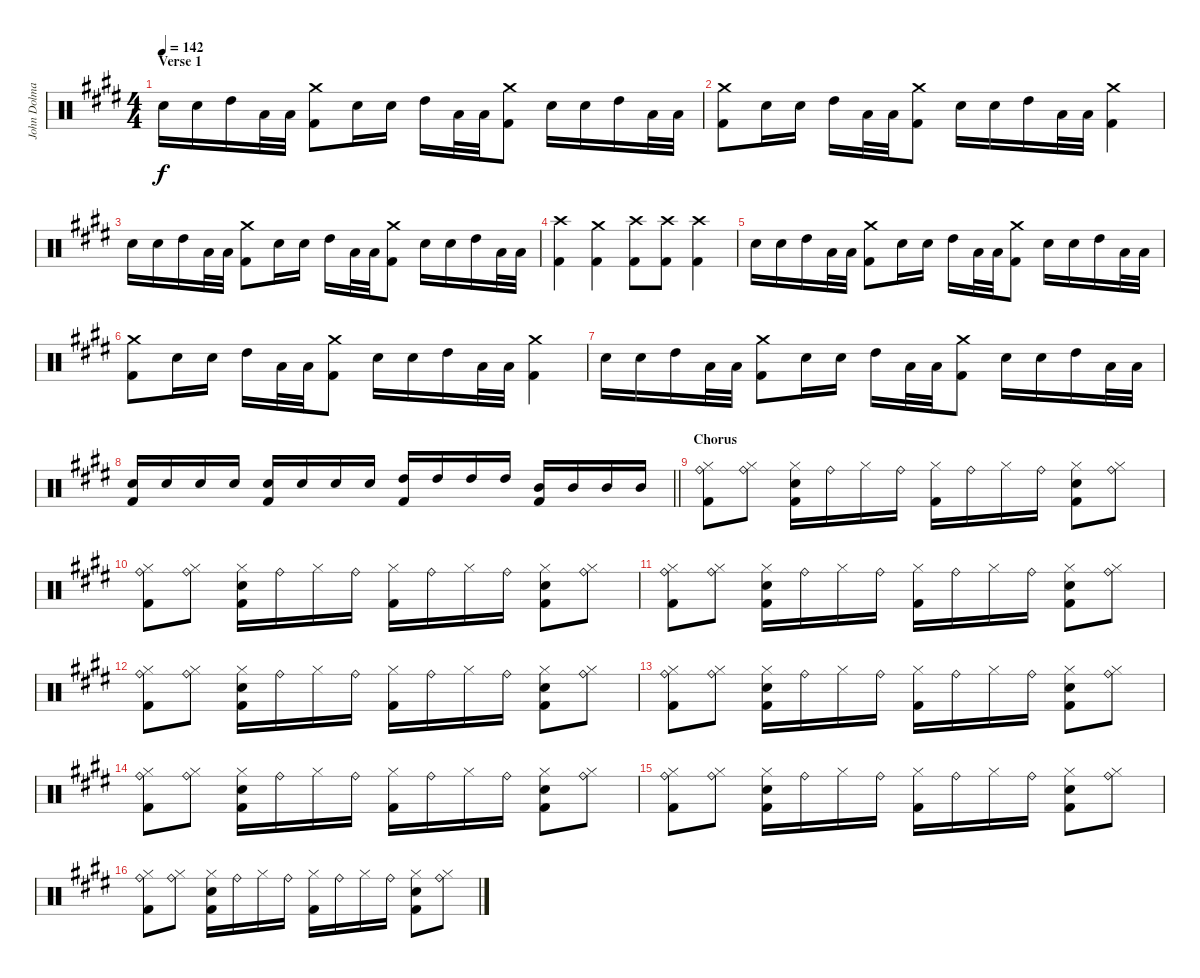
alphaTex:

\track ("John Dolmayan [Drums]" "John Dolma") {instrument percussion}
\staff {score}
\articulation defaults
\ts (4 4)
\section ("" "Verse 1")
\tempo 142
\clef neutral
\ks c#minor "Electric Snare (hit)".16{dy f} "Electric Snare (hit)".16 "High Tom (hit)".16 "Low Floor Tom (hit)".32 "Low Floor Tom (hit)".32
("Crash medium (hit)" "Kick (hit) 2").8 "Electric Snare (hit)".16 "Electric Snare (hit)".16 "High Tom (hit)".16 "Low Floor Tom (hit)".32 "Low Floor Tom (hit)".32 ("Crash medium (hit)" "Kick (hit) 2").8 "Electric Snare (hit)".16 "Electric Snare (hit)".16 "High Tom (hit)".16 "Low Floor Tom (hit)".32 "Low Floor Tom (hit)".32 |
("Crash medium (hit)" "Kick (hit) 2").8 "Electric Snare (hit)".16 "Electric Snare (hit)".16 "High Tom (hit)".16 "Low Floor Tom (hit)".32 "Low Floor Tom (hit)".32 ("Crash medium (hit)" "Kick (hit) 2").8 "Electric Snare (hit)".16 "Electric Snare (hit)".16 "High Tom (hit)".16 "Low Floor Tom (hit)".32 "Low Floor Tom (hit)".32 ("Crash medium (hit)" "Kick (hit) 2").4 |
"Electric Snare (hit)".16 "Electric Snare (hit)".16 "High Tom (hit)".16 "Low Floor Tom (hit)".32 "Low Floor Tom (hit)".32 ("Crash medium (hit)" "Kick (hit) 2").8 "Electric Snare (hit)".16 "Electric Snare (hit)".16 "High Tom (hit)".16 "Low Floor Tom (hit)".32 "Low Floor Tom (hit)".32 ("Crash medium (hit)" "Kick (hit) 2").8 "Electric Snare (hit)".16 "Electric Snare (hit)".16 "High Tom (hit)".16 "Low Floor Tom (hit)".32 "Low Floor Tom (hit)".32 |
("Crash high (hit)" "Kick (hit) 2").4 ("Crash medium (hit)" "Kick (hit) 2").4 ("Crash high (hit)" "Kick (hit) 2").8 ("Crash high (hit)" "Kick (hit) 2").8 ("Crash high (hit)" "Kick (hit) 2").4 |
"Electric Snare (hit)".16 "Electric Snare (hit)".16 "High Tom (hit)".16 "Low Floor Tom (hit)".32 "Low Floor Tom (hit)".32 ("Crash medium (hit)" "Kick (hit) 2").8 "Electric Snare (hit)".16 "Electric Snare (hit)".16 "High Tom (hit)".16 "Low Floor Tom (hit)".32 "Low Floor Tom (hit)".32 ("Crash medium (hit)" "Kick (hit) 2").8 "Electric Snare (hit)".16 "Electric Snare (hit)".16 "High Tom (hit)".16 "Low Floor Tom (hit)".32 "Low Floor Tom (hit)".32 |
("Crash medium (hit)" "Kick (hit) 2").8 "Electric Snare (hit)".16 "Electric Snare (hit)".16 "High Tom (hit)".16 "Low Floor Tom (hit)".32 "Low Floor Tom (hit)".32 ("Crash medium (hit)" "Kick (hit) 2").8 "Electric Snare (hit)".16 "Electric Snare (hit)".16 "High Tom (hit)".16 "Low Floor Tom (hit)".32 "Low Floor Tom (hit)".32 ("Crash medium (hit)" "Kick (hit) 2").4 |
"Electric Snare (hit)".16 "Electric Snare (hit)".16 "High Tom (hit)".16 "Low Floor Tom (hit)".32 "Low Floor Tom (hit)".32 ("Crash medium (hit)" "Kick (hit) 2").8 "Electric Snare (hit)".16 "Electric Snare (hit)".16 "High Tom (hit)".16 "Low Floor Tom (hit)".32 "Low Floor Tom (hit)".32 ("Crash medium (hit)" "Kick (hit) 2").8 "Electric Snare (hit)".16 "Electric Snare (hit)".16 "High Tom (hit)".16 "Low Floor Tom (hit)".32 "Low Floor Tom (hit)".32 |
\barLineRight lightlight
("Electric Snare (hit)" "Kick (hit) 2").16 "Electric Snare (hit)".16 "Electric Snare (hit)".16 "Electric Snare (hit)".16 ("Electric Snare (hit)" "Kick (hit) 2").16 "Electric Snare (hit)".16 "Electric Snare (hit)".16 "Electric Snare (hit)".16 ("High Tom (hit)" "Kick (hit) 2").16 "High Tom (hit)".16 "High Tom (hit)".16 "High Tom (hit)".16 ("Mid Tom (hit)" "Kick (hit) 2").16 "Mid Tom (hit)".16 "Mid Tom (hit)".16 "Mid Tom (hit)".16 |
\section ("" "Chorus")
("Ride (bell)" "Hi-Hat (closed)" "Kick (hit) 2").8 ("Ride (bell)" "Hi-Hat (closed)").8 ("Hi-Hat (closed)" "Electric Snare (hit)" "Kick (hit) 2").16 "Ride (bell)".16 "Hi-Hat (closed)".16 "Ride (bell)".16 ("Hi-Hat (closed)" "Kick (hit) 2").16 "Ride (bell)".16 "Hi-Hat (closed)".16 "Ride (bell)".16 ("Hi-Hat (closed)" "Electric Snare (hit)" "Kick (hit) 2").8 ("Ride (bell)" "Hi-Hat (closed)").8 |
("Ride (bell)" "Hi-Hat (closed)" "Kick (hit) 2").8 ("Ride (bell)" "Hi-Hat (closed)").8 ("Hi-Hat (closed)" "Electric Snare (hit)" "Kick (hit) 2").16 "Ride (bell)".16 "Hi-Hat (closed)".16 "Ride (bell)".16 ("Hi-Hat (closed)" "Kick (hit) 2").16 "Ride (bell)".16 "Hi-Hat (closed)".16 "Ride (bell)".16 ("Hi-Hat (closed)" "Electric Snare (hit)" "Kick (hit) 2").8 ("Ride (bell)" "Hi-Hat (closed)").8 |
("Ride (bell)" "Hi-Hat (closed)" "Kick (hit) 2").8 ("Ride (bell)" "Hi-Hat (closed)").8 ("Hi-Hat (closed)" "Electric Snare (hit)" "Kick (hit) 2").16 "Ride (bell)".16 "Hi-Hat (closed)".16 "Ride (bell)".16 ("Hi-Hat (closed)" "Kick (hit) 2").16 "Ride (bell)".16 "Hi-Hat (closed)".16 "Ride (bell)".16 ("Hi-Hat (closed)" "Electric Snare (hit)" "Kick (hit) 2").8 ("Ride (bell)" "Hi-Hat (closed)").8 |
("Ride (bell)" "Hi-Hat (closed)" "Kick (hit) 2").8 ("Ride (bell)" "Hi-Hat (closed)").8 ("Hi-Hat (closed)" "Electric Snare (hit)" "Kick (hit) 2").16 "Ride (bell)".16 "Hi-Hat (closed)".16 "Ride (bell)".16 ("Hi-Hat (closed)" "Kick (hit) 2").16 "Ride (bell)".16 "Hi-Hat (closed)".16 "Ride (bell)".16 ("Hi-Hat (closed)" "Electric Snare (hit)" "Kick (hit) 2").8 ("Ride (bell)" "Hi-Hat (closed)").8 |
("Ride (bell)" "Hi-Hat (closed)" "Kick (hit) 2").8 ("Ride (bell)" "Hi-Hat (closed)").8 ("Hi-Hat (closed)" "Electric Snare (hit)" "Kick (hit) 2").16 "Ride (bell)".16 "Hi-Hat (closed)".16 "Ride (bell)".16 ("Hi-Hat (closed)" "Kick (hit) 2").16 "Ride (bell)".16 "Hi-Hat (closed)".16 "Ride (bell)".16 ("Hi-Hat (closed)" "Electric Snare (hit)" "Kick (hit) 2").8 ("Ride (bell)" "Hi-Hat (closed)").8 |
("Ride (bell)" "Hi-Hat (closed)" "Kick (hit) 2").8 ("Ride (bell)" "Hi-Hat (closed)").8 ("Hi-Hat (closed)" "Electric Snare (hit)" "Kick (hit) 2").16 "Ride (bell)".16 "Hi-Hat (closed)".16 "Ride (bell)".16 ("Hi-Hat (closed)" "Kick (hit) 2").16 "Ride (bell)".16 "Hi-Hat (closed)".16 "Ride (bell)".16 ("Hi-Hat (closed)" "Electric Snare (hit)" "Kick (hit) 2").8 ("Ride (bell)" "Hi-Hat (closed)").8 |
("Ride (bell)" "Hi-Hat (closed)" "Kick (hit) 2").8 ("Ride (bell)" "Hi-Hat (closed)").8 ("Hi-Hat (closed)" "Electric Snare (hit)" "Kick (hit) 2").16 "Ride (bell)".16 "Hi-Hat (closed)".16 "Ride (bell)".16 ("Hi-Hat (closed)" "Kick (hit) 2").16 "Ride (bell)".16 "Hi-Hat (closed)".16 "Ride (bell)".16 ("Hi-Hat (closed)" "Electric Snare (hit)" "Kick (hit) 2").8 ("Ride (bell)" "Hi-Hat (closed)").8 |
("Ride (bell)" "Hi-Hat (closed)" "Kick (hit) 2").8 ("Ride (bell)" "Hi-Hat (closed)").8 ("Hi-Hat (closed)" "Electric Snare (hit)" "Kick (hit) 2").16 "Ride (bell)".16 "Hi-Hat (closed)".16 "Ride (bell)".16 ("Hi-Hat (closed)" "Kick (hit) 2").16 "Ride (bell)".16 "Hi-Hat (closed)".16 "Ride (bell)".16 ("Hi-Hat (closed)" "Electric Snare (hit)" "Kick (hit) 2").8 ("Ride (bell)" "Hi-Hat (closed)").8
